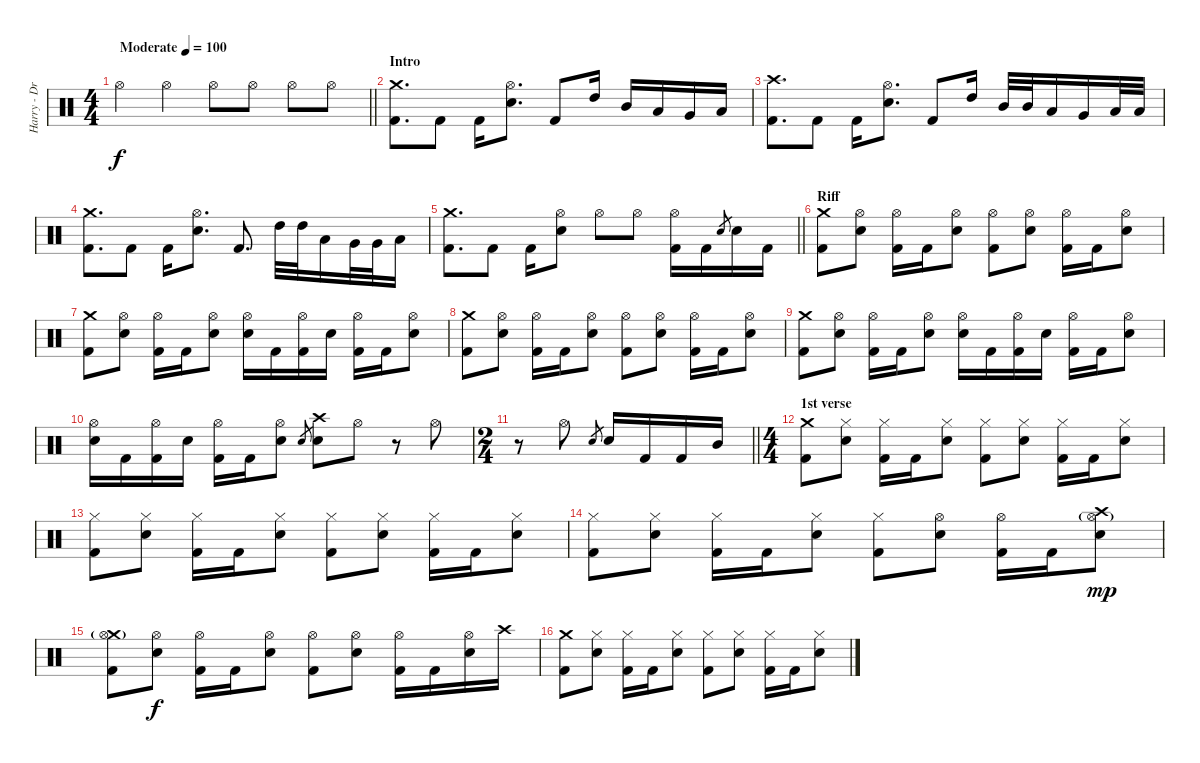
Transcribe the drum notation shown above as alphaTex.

\track ("Harry - Drums" "Harry - Dr") {instrument percussion}
\staff {score}
\articulation defaults
\ts (4 4)
\tempo (100 "Moderate")
\clef neutral
\barLineRight lightlight
\ks c "Hi-Hat (open)".4{dy f} "Hi-Hat (open)".4 "Hi-Hat (open)".8 "Hi-Hat (open)".8 "Hi-Hat (open)".8 "Hi-Hat (open)".8
|
\section ("" "Intro")
("Crash medium (hit)" "Kick (hit) 2").8{d} "Kick (hit) 2".8 "Kick (hit) 2".16 ("Hi-Hat (open)" "Electric Snare (hit)").8{d} "Kick (hit) 2".8 "High Tom (hit)".16 "Mid Tom (hit)".16 "Low Tom (hit)".16 "Very Low Tom (hit)".16 "Low Floor Tom (hit)".16 |
("Crash high (hit)" "Kick (hit) 2").8{d} "Kick (hit) 2".8 "Kick (hit) 2".16 ("Hi-Hat (open)" "Electric Snare (hit)").8{d} "Kick (hit) 2".8 "High Tom (hit)".16 "Mid Tom (hit)".32 "Mid Tom (hit)".32 "Low Tom (hit)".16 "Very Low Tom (hit)".16 "Low Floor Tom (hit)".32 "Low Floor Tom (hit)".32 |
("Crash medium (hit)" "Kick (hit) 2").8{d} "Kick (hit) 2".8 "Kick (hit) 2".16 ("Hi-Hat (open)" "Electric Snare (hit)").8{d} "Kick (hit) 2".8{d} "High Tom (hit)".32 "High Tom (hit)".32 "Low Tom (hit)".16 "Very Low Tom (hit)".32 "Very Low Tom (hit)".32 "Low Floor Tom (hit)".16 |
\barLineRight lightlight
("Crash medium (hit)" "Kick (hit) 2").8{d} "Kick (hit) 2".8 "Kick (hit) 2".16 ("Hi-Hat (open)" "Electric Snare (hit)").8 "Hi-Hat (open)".8 "Hi-Hat (open)".8 ("Hi-Hat (open)" "Kick (hit) 2").16 "Kick (hit) 2".16 "Electric Snare (hit)".8{gr} "Electric Snare (hit)".16 "Kick (hit) 2".16 |
\section ("" "Riff")
("Crash medium (hit)" "Kick (hit) 2").8 ("Hi-Hat (open)" "Electric Snare (hit)").8 ("Hi-Hat (open)" "Kick (hit) 2").16 "Kick (hit) 2".16 ("Hi-Hat (open)" "Electric Snare (hit)").8 ("Hi-Hat (open)" "Kick (hit) 2").8 ("Hi-Hat (open)" "Electric Snare (hit)").8 ("Hi-Hat (open)" "Kick (hit) 2").16 "Kick (hit) 2".16 ("Hi-Hat (open)" "Electric Snare (hit)").8 |
("Crash medium (hit)" "Kick (hit) 2").8 ("Hi-Hat (open)" "Electric Snare (hit)").8 ("Hi-Hat (open)" "Kick (hit) 2").16 "Kick (hit) 2".16 ("Hi-Hat (open)" "Electric Snare (hit)").8 ("Hi-Hat (open)" "Electric Snare (hit)").16 "Kick (hit) 2".16 ("Hi-Hat (open)" "Kick (hit) 2").16 "Electric Snare (hit)".16 ("Hi-Hat (open)" "Kick (hit) 2").16 "Kick (hit) 2".16 ("Hi-Hat (open)" "Electric Snare (hit)").8 |
("Crash medium (hit)" "Kick (hit) 2").8 ("Hi-Hat (open)" "Electric Snare (hit)").8 ("Hi-Hat (open)" "Kick (hit) 2").16 "Kick (hit) 2".16 ("Hi-Hat (open)" "Electric Snare (hit)").8 ("Hi-Hat (open)" "Kick (hit) 2").8 ("Hi-Hat (open)" "Electric Snare (hit)").8 ("Hi-Hat (open)" "Kick (hit) 2").16 "Kick (hit) 2".16 ("Hi-Hat (open)" "Electric Snare (hit)").8 |
("Crash medium (hit)" "Kick (hit) 2").8 ("Hi-Hat (open)" "Electric Snare (hit)").8 ("Hi-Hat (open)" "Kick (hit) 2").16 "Kick (hit) 2".16 ("Hi-Hat (open)" "Electric Snare (hit)").8 ("Hi-Hat (open)" "Electric Snare (hit)").16 "Kick (hit) 2".16 ("Hi-Hat (open)" "Kick (hit) 2").16 "Electric Snare (hit)".16 ("Hi-Hat (open)" "Kick (hit) 2").16 "Kick (hit) 2".16 ("Hi-Hat (open)" "Electric Snare (hit)").8 |
("Hi-Hat (open)" "Electric Snare (hit)").16 "Kick (hit) 2".16 ("Hi-Hat (open)" "Kick (hit) 2").16 "Electric Snare (hit)".16 ("Hi-Hat (open)" "Kick (hit) 2").16 "Kick (hit) 2".16 ("Hi-Hat (open)" "Electric Snare (hit)").8 "Electric Snare (hit)".8{gr} ("Crash high (hit)" "Electric Snare (hit)").8 "Hi-Hat (open)".8 r.8 "Hi-Hat (open)".8 |
\ts (2 4)
\barLineRight lightlight
r.8 "Hi-Hat (open)".8 "Electric Snare (hit)".8{gr} "Electric Snare (hit)".16 "Kick (hit) 2".16 "Kick (hit) 2".16 "Mid Tom (hit)".16 |
\ts (4 4)
\section ("" "1st verse")
("Crash medium (hit)" "Kick (hit) 2").8 ("Hi-Hat (closed)" "Electric Snare (hit)").8 ("Hi-Hat (closed)" "Kick (hit) 2").16 "Kick (hit) 2".16 ("Hi-Hat (closed)" "Electric Snare (hit)").8 ("Hi-Hat (closed)" "Kick (hit) 2").8 ("Hi-Hat (closed)" "Electric Snare (hit)").8 ("Hi-Hat (closed)" "Kick (hit) 2").16 "Kick (hit) 2".16 ("Hi-Hat (closed)" "Electric Snare (hit)").8 |
("Hi-Hat (closed)" "Kick (hit) 2").8 ("Hi-Hat (closed)" "Electric Snare (hit)").8 ("Hi-Hat (closed)" "Kick (hit) 2").16 "Kick (hit) 2".16 ("Hi-Hat (closed)" "Electric Snare (hit)").8 ("Hi-Hat (closed)" "Kick (hit) 2").8 ("Hi-Hat (closed)" "Electric Snare (hit)").8 ("Hi-Hat (closed)" "Kick (hit) 2").16 "Kick (hit) 2".16 ("Hi-Hat (closed)" "Electric Snare (hit)").8 |
("Hi-Hat (closed)" "Kick (hit) 2").8 ("Hi-Hat (closed)" "Electric Snare (hit)").8 ("Hi-Hat (closed)" "Kick (hit) 2").16 "Kick (hit) 2".16 ("Hi-Hat (closed)" "Electric Snare (hit)").8 ("Hi-Hat (closed)" "Kick (hit) 2").8 ("Hi-Hat (open)" "Electric Snare (hit)").8 ("Hi-Hat (open)" "Kick (hit) 2").16 "Kick (hit) 2".16 ("Crash high (hit)" "Hi-Hat (open)"{g} "Electric Snare (hit)").8{dy mp} |
("Crash medium (hit)" "Hi-Hat (open)"{g} "Kick (hit) 2").8 ("Hi-Hat (open)" "Electric Snare (hit)").8{dy f} ("Hi-Hat (open)" "Kick (hit) 2").16 "Kick (hit) 2".16 ("Hi-Hat (open)" "Electric Snare (hit)").8 ("Hi-Hat (open)" "Kick (hit) 2").8 ("Hi-Hat (open)" "Electric Snare (hit)").8 ("Hi-Hat (open)" "Kick (hit) 2").16 "Kick (hit) 2".16 ("Hi-Hat (open)" "Electric Snare (hit)").16 "Crash high (hit)".16 |
("Crash medium (hit)" "Kick (hit) 2").8 ("Hi-Hat (closed)" "Electric Snare (hit)").8 ("Hi-Hat (closed)" "Kick (hit) 2").16 "Kick (hit) 2".16 ("Hi-Hat (closed)" "Electric Snare (hit)").8 ("Hi-Hat (closed)" "Kick (hit) 2").8 ("Hi-Hat (closed)" "Electric Snare (hit)").8 ("Hi-Hat (closed)" "Kick (hit) 2").16 "Kick (hit) 2".16 ("Hi-Hat (closed)" "Electric Snare (hit)").8
